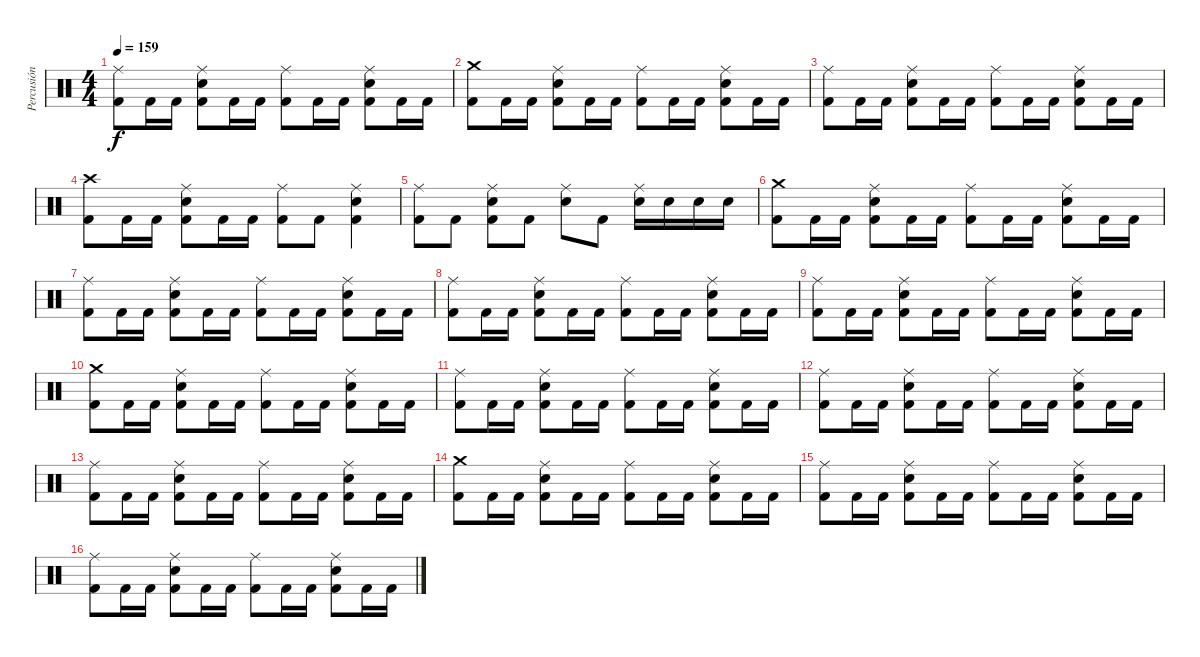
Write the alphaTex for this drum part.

\track ("Percusión" "Percusión") {instrument percussion}
\staff {score}
\articulation defaults
\ts (4 4)
\tempo 159
\clef neutral
\ks c
("Ride (middle)" "Kick (hit) 2").8{dy f} "Kick (hit) 2".16 "Kick (hit) 2".16 ("Ride (middle)" "Electric Snare (hit)" "Kick (hit) 2").8 "Kick (hit) 2".16 "Kick (hit) 2".16 ("Ride (middle)" "Kick (hit) 2").8 "Kick (hit) 2".16 "Kick (hit) 2".16 ("Ride (middle)" "Electric Snare (hit)" "Kick (hit) 2").8 "Kick (hit) 2".16 "Kick (hit) 2".16 |
("Crash medium (hit)" "Kick (hit) 2").8 "Kick (hit) 2".16 "Kick (hit) 2".16 ("Ride (middle)" "Electric Snare (hit)" "Kick (hit) 2").8 "Kick (hit) 2".16 "Kick (hit) 2".16 ("Ride (middle)" "Kick (hit) 2").8 "Kick (hit) 2".16 "Kick (hit) 2".16 ("Ride (middle)" "Electric Snare (hit)" "Kick (hit) 2").8 "Kick (hit) 2".16 "Kick (hit) 2".16 |
("Ride (middle)" "Kick (hit) 2").8 "Kick (hit) 2".16 "Kick (hit) 2".16 ("Ride (middle)" "Electric Snare (hit)" "Kick (hit) 2").8 "Kick (hit) 2".16 "Kick (hit) 2".16 ("Ride (middle)" "Kick (hit) 2").8 "Kick (hit) 2".16 "Kick (hit) 2".16 ("Ride (middle)" "Electric Snare (hit)" "Kick (hit) 2").8 "Kick (hit) 2".16 "Kick (hit) 2".16 |
("Crash high (hit)" "Kick (hit) 2").8 "Kick (hit) 2".16 "Kick (hit) 2".16 ("Ride (middle)" "Electric Snare (hit)" "Kick (hit) 2").8 "Kick (hit) 2".16 "Kick (hit) 2".16 ("Ride (middle)" "Kick (hit) 2").8 "Kick (hit) 2".8 ("Ride (middle)" "Electric Snare (hit)" "Kick (hit) 2").4 |
("Ride (middle)" "Kick (hit) 2").8 "Kick (hit) 2".8 ("Ride (middle)" "Electric Snare (hit)" "Kick (hit) 2").8 "Kick (hit) 2".8 ("Ride (middle)" "Electric Snare (hit)").8 "Kick (hit) 2".8 ("Ride (middle)" "Electric Snare (hit)").16 "Electric Snare (hit)".16 "Electric Snare (hit)".16 "Electric Snare (hit)".16 |
("Crash medium (hit)" "Kick (hit) 2").8 "Kick (hit) 2".16 "Kick (hit) 2".16 ("Ride (middle)" "Electric Snare (hit)" "Kick (hit) 2").8 "Kick (hit) 2".16 "Kick (hit) 2".16 ("Ride (middle)" "Kick (hit) 2").8 "Kick (hit) 2".16 "Kick (hit) 2".16 ("Ride (middle)" "Electric Snare (hit)" "Kick (hit) 2").8 "Kick (hit) 2".16 "Kick (hit) 2".16 |
("Ride (middle)" "Kick (hit) 2").8 "Kick (hit) 2".16 "Kick (hit) 2".16 ("Ride (middle)" "Electric Snare (hit)" "Kick (hit) 2").8 "Kick (hit) 2".16 "Kick (hit) 2".16 ("Ride (middle)" "Kick (hit) 2").8 "Kick (hit) 2".16 "Kick (hit) 2".16 ("Ride (middle)" "Electric Snare (hit)" "Kick (hit) 2").8 "Kick (hit) 2".16 "Kick (hit) 2".16 |
("Ride (middle)" "Kick (hit) 2").8 "Kick (hit) 2".16 "Kick (hit) 2".16 ("Ride (middle)" "Electric Snare (hit)" "Kick (hit) 2").8 "Kick (hit) 2".16 "Kick (hit) 2".16 ("Ride (middle)" "Kick (hit) 2").8 "Kick (hit) 2".16 "Kick (hit) 2".16 ("Ride (middle)" "Electric Snare (hit)" "Kick (hit) 2").8 "Kick (hit) 2".16 "Kick (hit) 2".16 |
("Ride (middle)" "Kick (hit) 2").8 "Kick (hit) 2".16 "Kick (hit) 2".16 ("Ride (middle)" "Electric Snare (hit)" "Kick (hit) 2").8 "Kick (hit) 2".16 "Kick (hit) 2".16 ("Ride (middle)" "Kick (hit) 2").8 "Kick (hit) 2".16 "Kick (hit) 2".16 ("Ride (middle)" "Electric Snare (hit)" "Kick (hit) 2").8 "Kick (hit) 2".16 "Kick (hit) 2".16 |
("Crash medium (hit)" "Kick (hit) 2").8 "Kick (hit) 2".16 "Kick (hit) 2".16 ("Ride (middle)" "Electric Snare (hit)" "Kick (hit) 2").8 "Kick (hit) 2".16 "Kick (hit) 2".16 ("Ride (middle)" "Kick (hit) 2").8 "Kick (hit) 2".16 "Kick (hit) 2".16 ("Ride (middle)" "Electric Snare (hit)" "Kick (hit) 2").8 "Kick (hit) 2".16 "Kick (hit) 2".16 |
("Ride (middle)" "Kick (hit) 2").8 "Kick (hit) 2".16 "Kick (hit) 2".16 ("Ride (middle)" "Electric Snare (hit)" "Kick (hit) 2").8 "Kick (hit) 2".16 "Kick (hit) 2".16 ("Ride (middle)" "Kick (hit) 2").8 "Kick (hit) 2".16 "Kick (hit) 2".16 ("Ride (middle)" "Electric Snare (hit)" "Kick (hit) 2").8 "Kick (hit) 2".16 "Kick (hit) 2".16 |
("Ride (middle)" "Kick (hit) 2").8 "Kick (hit) 2".16 "Kick (hit) 2".16 ("Ride (middle)" "Electric Snare (hit)" "Kick (hit) 2").8 "Kick (hit) 2".16 "Kick (hit) 2".16 ("Ride (middle)" "Kick (hit) 2").8 "Kick (hit) 2".16 "Kick (hit) 2".16 ("Ride (middle)" "Electric Snare (hit)" "Kick (hit) 2").8 "Kick (hit) 2".16 "Kick (hit) 2".16 |
("Ride (middle)" "Kick (hit) 2").8 "Kick (hit) 2".16 "Kick (hit) 2".16 ("Ride (middle)" "Electric Snare (hit)" "Kick (hit) 2").8 "Kick (hit) 2".16 "Kick (hit) 2".16 ("Ride (middle)" "Kick (hit) 2").8 "Kick (hit) 2".16 "Kick (hit) 2".16 ("Ride (middle)" "Electric Snare (hit)" "Kick (hit) 2").8 "Kick (hit) 2".16 "Kick (hit) 2".16 |
("Crash medium (hit)" "Kick (hit) 2").8 "Kick (hit) 2".16 "Kick (hit) 2".16 ("Ride (middle)" "Electric Snare (hit)" "Kick (hit) 2").8 "Kick (hit) 2".16 "Kick (hit) 2".16 ("Ride (middle)" "Kick (hit) 2").8 "Kick (hit) 2".16 "Kick (hit) 2".16 ("Ride (middle)" "Electric Snare (hit)" "Kick (hit) 2").8 "Kick (hit) 2".16 "Kick (hit) 2".16 |
("Ride (middle)" "Kick (hit) 2").8 "Kick (hit) 2".16 "Kick (hit) 2".16 ("Ride (middle)" "Electric Snare (hit)" "Kick (hit) 2").8 "Kick (hit) 2".16 "Kick (hit) 2".16 ("Ride (middle)" "Kick (hit) 2").8 "Kick (hit) 2".16 "Kick (hit) 2".16 ("Ride (middle)" "Electric Snare (hit)" "Kick (hit) 2").8 "Kick (hit) 2".16 "Kick (hit) 2".16 |
("Ride (middle)" "Kick (hit) 2").8 "Kick (hit) 2".16 "Kick (hit) 2".16 ("Ride (middle)" "Electric Snare (hit)" "Kick (hit) 2").8 "Kick (hit) 2".16 "Kick (hit) 2".16 ("Ride (middle)" "Kick (hit) 2").8 "Kick (hit) 2".16 "Kick (hit) 2".16 ("Ride (middle)" "Electric Snare (hit)" "Kick (hit) 2").8 "Kick (hit) 2".16 "Kick (hit) 2".16
